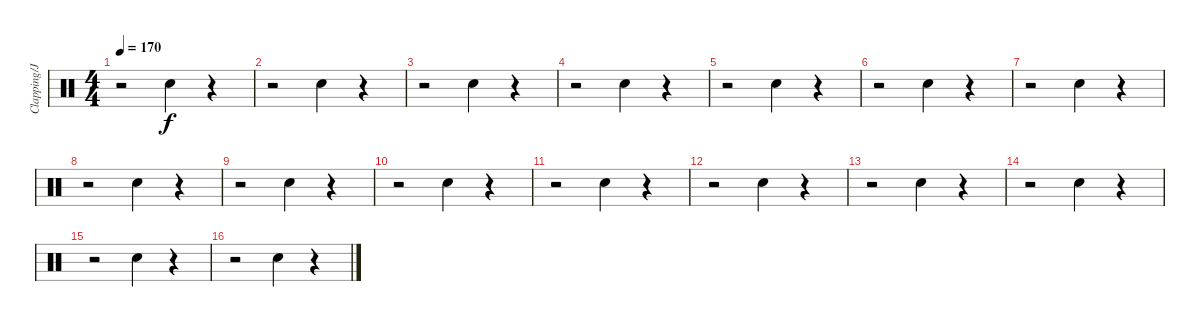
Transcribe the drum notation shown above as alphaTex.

\track ("Clapping/Jay-Z (snare)" "Clapping/J") {instrument percussion}
\staff {score}
\articulation defaults
\ts (4 4)
\tempo 170
\clef neutral
\ks c
r.2{dy f} "Hand Clap (hit)".4 r.4 |
r.2 "Hand Clap (hit)".4 r.4 |
r.2 "Hand Clap (hit)".4 r.4 |
r.2 "Hand Clap (hit)".4 r.4 |
r.2 "Hand Clap (hit)".4 r.4 |
r.2 "Hand Clap (hit)".4 r.4 |
r.2 "Hand Clap (hit)".4 r.4 |
r.2 "Hand Clap (hit)".4 r.4 |
r.2 "Hand Clap (hit)".4 r.4 |
r.2 "Hand Clap (hit)".4 r.4 |
r.2 "Hand Clap (hit)".4 r.4 |
r.2 "Hand Clap (hit)".4 r.4 |
r.2 "Hand Clap (hit)".4 r.4 |
r.2 "Hand Clap (hit)".4 r.4 |
r.2 "Hand Clap (hit)".4 r.4 |
r.2 "Hand Clap (hit)".4 r.4
